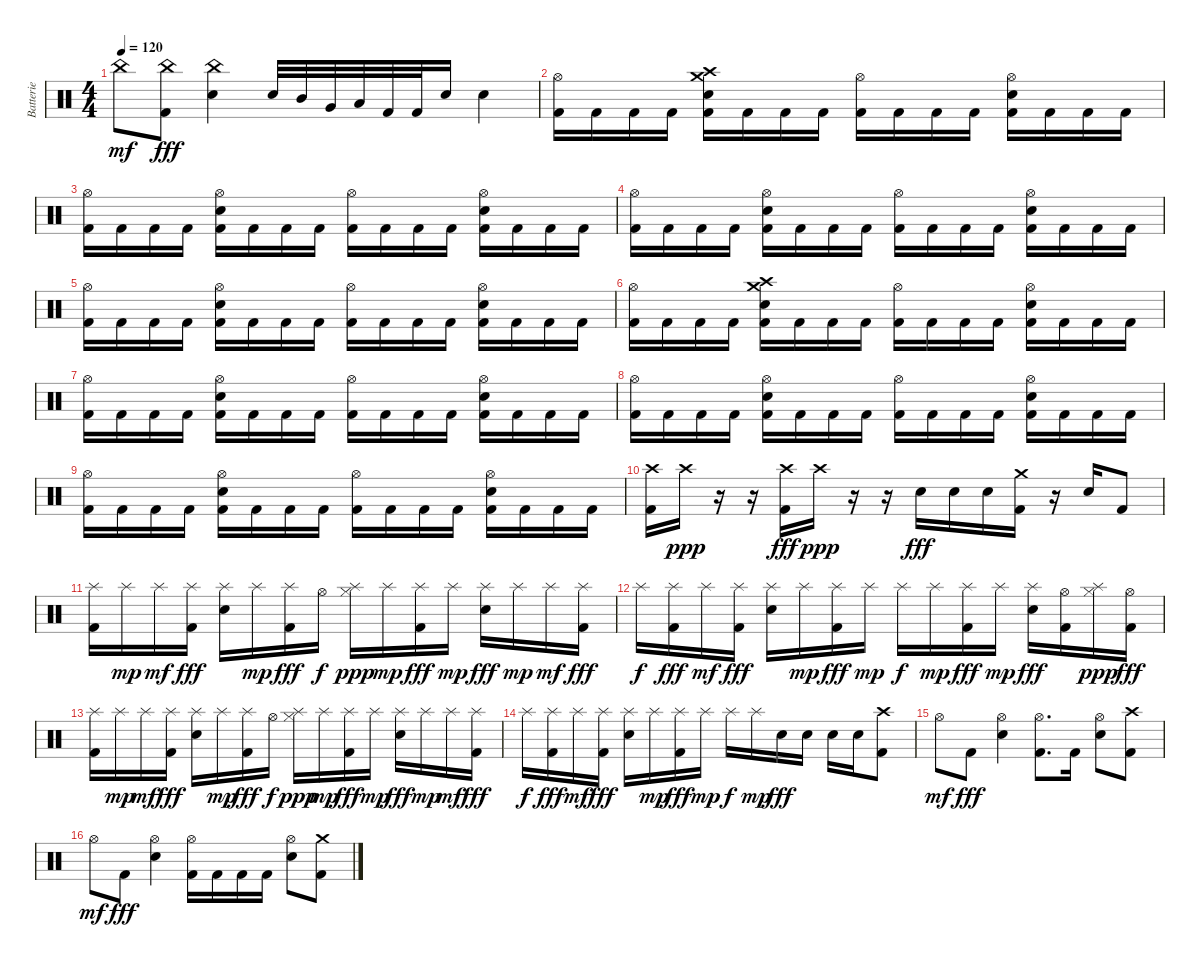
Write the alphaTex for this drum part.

\track ("Batterie" "Batterie") {instrument percussion}
\staff {score}
\articulation defaults
\ts (4 4)
\tempo 120
\clef neutral
\ks c "China (hit)".8{dy mf}
("China (hit)" "Kick (hit) 2").8{dy fff} ("China (hit)" "Electric Snare (hit)").4 "Electric Snare (hit)".32 "Mid Tom (hit)".32 "Very Low Tom (hit)".32 "Low Floor Tom (hit)".32 "Kick (hit) 2".32 "Kick (hit) 2".32 "Electric Snare (hit)".16 "Electric Snare (hit)".4 |
("Hi-Hat (open)" "Kick (hit) 2").16 "Kick (hit) 2".16 "Kick (hit) 2".16 "Kick (hit) 2".16 ("Crash medium (hit)" "Crash high (hit)" "Electric Snare (hit)" "Kick (hit) 2").16 "Kick (hit) 2".16 "Kick (hit) 2".16 "Kick (hit) 2".16 ("Hi-Hat (open)" "Kick (hit) 2").16 "Kick (hit) 2".16 "Kick (hit) 2".16 "Kick (hit) 2".16 ("Hi-Hat (open)" "Electric Snare (hit)" "Kick (hit) 2").16 "Kick (hit) 2".16 "Kick (hit) 2".16 "Kick (hit) 2".16 |
("Hi-Hat (open)" "Kick (hit) 2").16 "Kick (hit) 2".16 "Kick (hit) 2".16 "Kick (hit) 2".16 ("Hi-Hat (open)" "Electric Snare (hit)" "Kick (hit) 2").16 "Kick (hit) 2".16 "Kick (hit) 2".16 "Kick (hit) 2".16 ("Hi-Hat (open)" "Kick (hit) 2").16 "Kick (hit) 2".16 "Kick (hit) 2".16 "Kick (hit) 2".16 ("Hi-Hat (open)" "Electric Snare (hit)" "Kick (hit) 2").16 "Kick (hit) 2".16 "Kick (hit) 2".16 "Kick (hit) 2".16 |
("Hi-Hat (open)" "Kick (hit) 2").16 "Kick (hit) 2".16 "Kick (hit) 2".16 "Kick (hit) 2".16 ("Hi-Hat (open)" "Electric Snare (hit)" "Kick (hit) 2").16 "Kick (hit) 2".16 "Kick (hit) 2".16 "Kick (hit) 2".16 ("Hi-Hat (open)" "Kick (hit) 2").16 "Kick (hit) 2".16 "Kick (hit) 2".16 "Kick (hit) 2".16 ("Hi-Hat (open)" "Electric Snare (hit)" "Kick (hit) 2").16 "Kick (hit) 2".16 "Kick (hit) 2".16 "Kick (hit) 2".16 |
("Hi-Hat (open)" "Kick (hit) 2").16 "Kick (hit) 2".16 "Kick (hit) 2".16 "Kick (hit) 2".16 ("Hi-Hat (open)" "Electric Snare (hit)" "Kick (hit) 2").16 "Kick (hit) 2".16 "Kick (hit) 2".16 "Kick (hit) 2".16 ("Hi-Hat (open)" "Kick (hit) 2").16 "Kick (hit) 2".16 "Kick (hit) 2".16 "Kick (hit) 2".16 ("Hi-Hat (open)" "Electric Snare (hit)" "Kick (hit) 2").16 "Kick (hit) 2".16 "Kick (hit) 2".16 "Kick (hit) 2".16 |
("Hi-Hat (open)" "Kick (hit) 2").16 "Kick (hit) 2".16 "Kick (hit) 2".16 "Kick (hit) 2".16 ("Crash medium (hit)" "Crash high (hit)" "Electric Snare (hit)" "Kick (hit) 2").16 "Kick (hit) 2".16 "Kick (hit) 2".16 "Kick (hit) 2".16 ("Hi-Hat (open)" "Kick (hit) 2").16 "Kick (hit) 2".16 "Kick (hit) 2".16 "Kick (hit) 2".16 ("Hi-Hat (open)" "Electric Snare (hit)" "Kick (hit) 2").16 "Kick (hit) 2".16 "Kick (hit) 2".16 "Kick (hit) 2".16 |
("Hi-Hat (open)" "Kick (hit) 2").16 "Kick (hit) 2".16 "Kick (hit) 2".16 "Kick (hit) 2".16 ("Hi-Hat (open)" "Electric Snare (hit)" "Kick (hit) 2").16 "Kick (hit) 2".16 "Kick (hit) 2".16 "Kick (hit) 2".16 ("Hi-Hat (open)" "Kick (hit) 2").16 "Kick (hit) 2".16 "Kick (hit) 2".16 "Kick (hit) 2".16 ("Hi-Hat (open)" "Electric Snare (hit)" "Kick (hit) 2").16 "Kick (hit) 2".16 "Kick (hit) 2".16 "Kick (hit) 2".16 |
("Hi-Hat (open)" "Kick (hit) 2").16 "Kick (hit) 2".16 "Kick (hit) 2".16 "Kick (hit) 2".16 ("Hi-Hat (open)" "Electric Snare (hit)" "Kick (hit) 2").16 "Kick (hit) 2".16 "Kick (hit) 2".16 "Kick (hit) 2".16 ("Hi-Hat (open)" "Kick (hit) 2").16 "Kick (hit) 2".16 "Kick (hit) 2".16 "Kick (hit) 2".16 ("Hi-Hat (open)" "Electric Snare (hit)" "Kick (hit) 2").16 "Kick (hit) 2".16 "Kick (hit) 2".16 "Kick (hit) 2".16 |
("Hi-Hat (open)" "Kick (hit) 2").16 "Kick (hit) 2".16 "Kick (hit) 2".16 "Kick (hit) 2".16 ("Hi-Hat (open)" "Electric Snare (hit)" "Kick (hit) 2").16 "Kick (hit) 2".16 "Kick (hit) 2".16 "Kick (hit) 2".16 ("Hi-Hat (open)" "Kick (hit) 2").16 "Kick (hit) 2".16 "Kick (hit) 2".16 "Kick (hit) 2".16 ("Hi-Hat (open)" "Electric Snare (hit)" "Kick (hit) 2").16 "Kick (hit) 2".16 "Kick (hit) 2".16 "Kick (hit) 2".16 |
("Crash high (hit)" "Kick (hit) 2").16 "Crash high (hit)".16{dy ppp} r.16 r.16 ("Crash high (hit)" "Kick (hit) 2").16{dy fff} "Crash high (hit)".16{dy ppp} r.16 r.16 "Electric Snare (hit)".16{dy fff} "Electric Snare (hit)".16 "Electric Snare (hit)".16 ("Crash medium (hit)" "Kick (hit) 2").16 r.16 "Electric Snare (hit)".16 "Kick (hit) 2".8 |
("Splash (hit)" "Kick (hit) 2").16 "Splash (hit)".16{dy mp} "Splash (hit)".16{dy mf} ("Splash (hit)" "Kick (hit) 2").16{dy fff} ("Splash (hit)" "Electric Snare (hit)").16 "Splash (hit)".16{dy mp} ("Splash (hit)" "Kick (hit) 2").16{dy fff} "Hi-Hat (open)".16{dy f} ("Splash (hit)" "Hi-Hat (closed)").16{dy ppp} "Splash (hit)".16{dy mp} ("Splash (hit)" "Kick (hit) 2").16{dy fff} "Splash (hit)".16{dy mp} ("Splash (hit)" "Electric Snare (hit)").16{dy fff} "Splash (hit)".16{dy mp} "Splash (hit)".16{dy mf} ("Splash (hit)" "Kick (hit) 2").16{dy fff} |
"Splash (hit)".16{dy f} ("Splash (hit)" "Kick (hit) 2").16{dy fff} "Splash (hit)".16{dy mf} ("Splash (hit)" "Kick (hit) 2").16{dy fff} ("Splash (hit)" "Electric Snare (hit)").16 "Splash (hit)".16{dy mp} ("Splash (hit)" "Kick (hit) 2").16{dy fff} "Splash (hit)".16{dy mp} "Splash (hit)".16{dy f} "Splash (hit)".16{dy mp} ("Splash (hit)" "Kick (hit) 2").16{dy fff} "Splash (hit)".16{dy mp} ("Splash (hit)" "Electric Snare (hit)").16{dy fff} ("Hi-Hat (open)" "Kick (hit) 2").16 ("Splash (hit)" "Hi-Hat (closed)").16{dy ppp} ("Hi-Hat (open)" "Kick (hit) 2").16{dy fff} |
("Splash (hit)" "Kick (hit) 2").16 "Splash (hit)".16{dy mp} "Splash (hit)".16{dy mf} ("Splash (hit)" "Kick (hit) 2").16{dy fff} ("Splash (hit)" "Electric Snare (hit)").16 "Splash (hit)".16{dy mp} ("Splash (hit)" "Kick (hit) 2").16{dy fff} "Hi-Hat (open)".16{dy f} ("Splash (hit)" "Hi-Hat (closed)").16{dy ppp} "Splash (hit)".16{dy mp} ("Splash (hit)" "Kick (hit) 2").16{dy fff} "Splash (hit)".16{dy mp} ("Splash (hit)" "Electric Snare (hit)").16{dy fff} "Splash (hit)".16{dy mp} "Splash (hit)".16{dy mf} ("Splash (hit)" "Kick (hit) 2").16{dy fff} |
"Splash (hit)".16{dy f} ("Splash (hit)" "Kick (hit) 2").16{dy fff} "Splash (hit)".16{dy mf} ("Splash (hit)" "Kick (hit) 2").16{dy fff} ("Splash (hit)" "Electric Snare (hit)").16 "Splash (hit)".16{dy mp} ("Splash (hit)" "Kick (hit) 2").16{dy fff} "Splash (hit)".16{dy mp} "Splash (hit)".16{dy f} "Splash (hit)".16{dy mp} "Electric Snare (hit)".16{dy fff} "Electric Snare (hit)".16 "Electric Snare (hit)".16 "Electric Snare (hit)".16 ("Crash high (hit)" "Kick (hit) 2").8 |
"Hi-Hat (open)".8{dy mf} "Kick (hit) 2".8{dy fff} ("Hi-Hat (open)" "Electric Snare (hit)").4 ("Hi-Hat (open)" "Kick (hit) 2").8{d} "Kick (hit) 2".16 ("Hi-Hat (open)" "Electric Snare (hit)").8 ("Crash high (hit)" "Kick (hit) 2").8 |
"Hi-Hat (open)".8{dy mf} "Kick (hit) 2".8{dy fff} ("Hi-Hat (open)" "Electric Snare (hit)").4 ("Hi-Hat (open)" "Kick (hit) 2").16 "Kick (hit) 2".16 "Kick (hit) 2".16 "Kick (hit) 2".16 ("Hi-Hat (open)" "Electric Snare (hit)").8 ("Crash medium (hit)" "Kick (hit) 2").8
